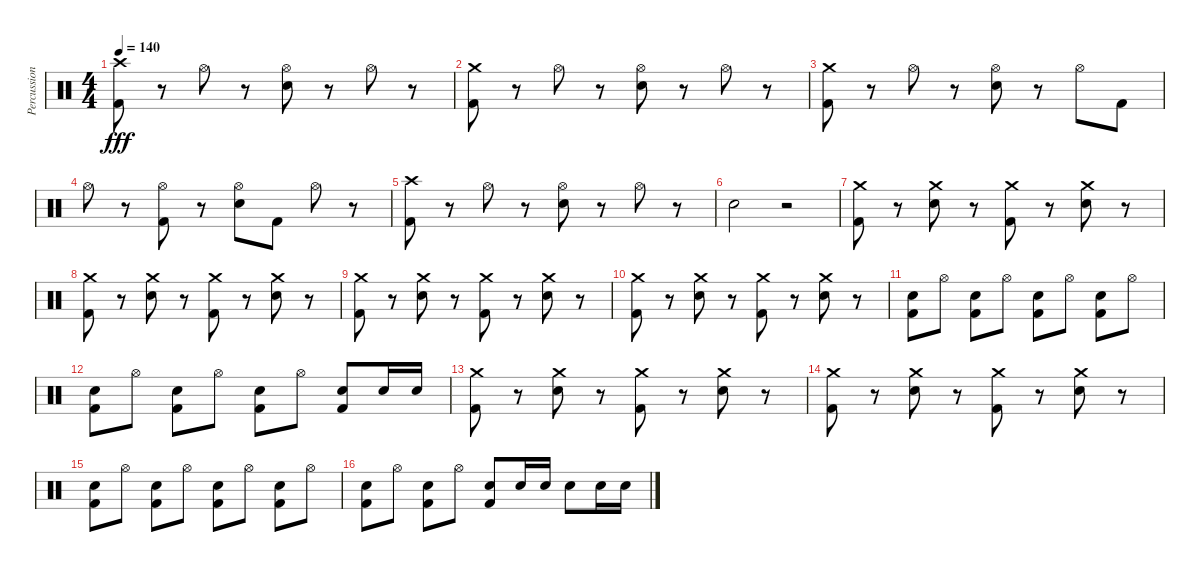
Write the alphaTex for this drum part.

\track ("Percussion" "Percussion") {instrument percussion}
\staff {score}
\articulation defaults
\ts (4 4)
\tempo 140
\clef neutral
\ks c
("Crash high (hit)" "Kick (hit) 2").8{dy fff} r.8 "Hi-Hat (open)".8 r.8 ("Hi-Hat (open)" "Electric Snare (hit)").8 r.8 "Hi-Hat (open)".8 r.8 |
("Crash medium (hit)" "Kick (hit) 2").8 r.8 "Hi-Hat (open)".8 r.8 ("Hi-Hat (open)" "Electric Snare (hit)").8 r.8 "Hi-Hat (open)".8 r.8 |
("Crash medium (hit)" "Kick (hit) 2").8 r.8 "Hi-Hat (open)".8 r.8 ("Hi-Hat (open)" "Electric Snare (hit)").8 r.8 "Hi-Hat (open)".8 "Kick (hit) 2".8 |
"Hi-Hat (open)".8 r.8 ("Hi-Hat (open)" "Kick (hit) 2").8 r.8 ("Hi-Hat (open)" "Electric Snare (hit)").8 "Kick (hit) 2".8 "Hi-Hat (open)".8 r.8 |
("Crash high (hit)" "Kick (hit) 2").8 r.8 "Hi-Hat (open)".8 r.8 ("Hi-Hat (open)" "Electric Snare (hit)").8 r.8 "Hi-Hat (open)".8 r.8 |
"Electric Snare (hit)".2 r.2 |
("Crash medium (hit)" "Kick (hit) 2").8 r.8 ("Crash medium (hit)" "Electric Snare (hit)").8 r.8 ("Crash medium (hit)" "Kick (hit) 2").8 r.8 ("Crash medium (hit)" "Electric Snare (hit)").8 r.8 |
("Crash medium (hit)" "Kick (hit) 2").8 r.8 ("Crash medium (hit)" "Electric Snare (hit)").8 r.8 ("Crash medium (hit)" "Kick (hit) 2").8 r.8 ("Crash medium (hit)" "Electric Snare (hit)").8 r.8 |
("Crash medium (hit)" "Kick (hit) 2").8 r.8 ("Crash medium (hit)" "Electric Snare (hit)").8 r.8 ("Crash medium (hit)" "Kick (hit) 2").8 r.8 ("Crash medium (hit)" "Electric Snare (hit)").8 r.8 |
("Crash medium (hit)" "Kick (hit) 2").8 r.8 ("Crash medium (hit)" "Electric Snare (hit)").8 r.8 ("Crash medium (hit)" "Kick (hit) 2").8 r.8 ("Crash medium (hit)" "Electric Snare (hit)").8 r.8 |
("Electric Snare (hit)" "Kick (hit) 2").8 "Hi-Hat (open)".8 ("Electric Snare (hit)" "Kick (hit) 2").8 "Hi-Hat (open)".8 ("Electric Snare (hit)" "Kick (hit) 2").8 "Hi-Hat (open)".8 ("Electric Snare (hit)" "Kick (hit) 2").8 "Hi-Hat (open)".8 |
("Electric Snare (hit)" "Kick (hit) 2").8 "Hi-Hat (open)".8 ("Electric Snare (hit)" "Kick (hit) 2").8 "Hi-Hat (open)".8 ("Electric Snare (hit)" "Kick (hit) 2").8 "Hi-Hat (open)".8 ("Electric Snare (hit)" "Kick (hit) 2").8 "Electric Snare (hit)".16 "Electric Snare (hit)".16 |
("Crash medium (hit)" "Kick (hit) 2").8 r.8 ("Crash medium (hit)" "Electric Snare (hit)").8 r.8 ("Crash medium (hit)" "Kick (hit) 2").8 r.8 ("Crash medium (hit)" "Electric Snare (hit)").8 r.8 |
("Crash medium (hit)" "Kick (hit) 2").8 r.8 ("Crash medium (hit)" "Electric Snare (hit)").8 r.8 ("Crash medium (hit)" "Kick (hit) 2").8 r.8 ("Crash medium (hit)" "Electric Snare (hit)").8 r.8 |
("Electric Snare (hit)" "Kick (hit) 2").8 "Hi-Hat (open)".8 ("Electric Snare (hit)" "Kick (hit) 2").8 "Hi-Hat (open)".8 ("Electric Snare (hit)" "Kick (hit) 2").8 "Hi-Hat (open)".8 ("Electric Snare (hit)" "Kick (hit) 2").8 "Hi-Hat (open)".8 |
("Electric Snare (hit)" "Kick (hit) 2").8 "Hi-Hat (open)".8 ("Electric Snare (hit)" "Kick (hit) 2").8 "Hi-Hat (open)".8 ("Electric Snare (hit)" "Kick (hit) 2").8 "Electric Snare (hit)".16 "Electric Snare (hit)".16 "Electric Snare (hit)".8 "Electric Snare (hit)".16 "Electric Snare (hit)".16
